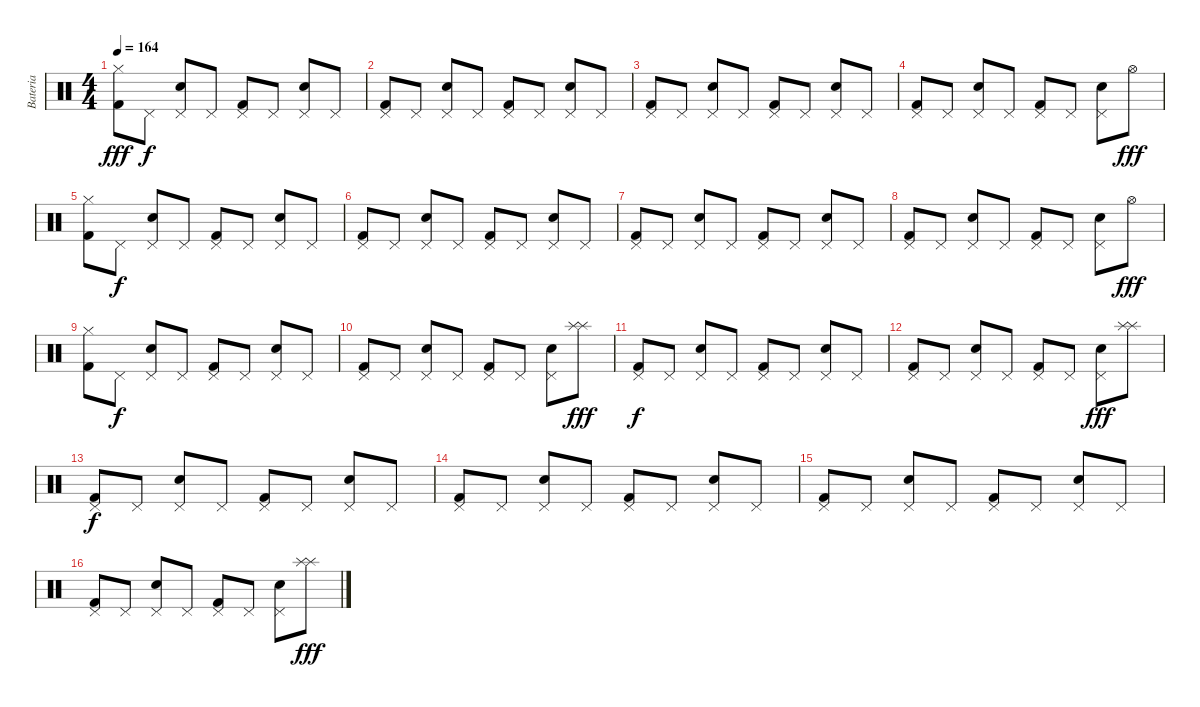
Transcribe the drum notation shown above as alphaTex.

\track ("Bateria" "Bateria") {instrument percussion}
\staff {score}
\articulation defaults
\ts (4 4)
\tempo 164
\clef neutral
\ks c
("Hi-Hat (closed)" "Kick (hit) 2").8{dy fff} "Pedal Hi-Hat (hit)".8{dy f} ("Pedal Hi-Hat (hit)" "Electric Snare (hit)").8 "Pedal Hi-Hat (hit)".8 ("Pedal Hi-Hat (hit)" "Kick (hit) 2").8 "Pedal Hi-Hat (hit)".8 ("Pedal Hi-Hat (hit)" "Electric Snare (hit)").8 "Pedal Hi-Hat (hit)".8 |
("Pedal Hi-Hat (hit)" "Kick (hit) 2").8 "Pedal Hi-Hat (hit)".8 ("Pedal Hi-Hat (hit)" "Electric Snare (hit)").8 "Pedal Hi-Hat (hit)".8 ("Pedal Hi-Hat (hit)" "Kick (hit) 2").8 "Pedal Hi-Hat (hit)".8 ("Pedal Hi-Hat (hit)" "Electric Snare (hit)").8 "Pedal Hi-Hat (hit)".8 |
("Pedal Hi-Hat (hit)" "Kick (hit) 2").8 "Pedal Hi-Hat (hit)".8 ("Pedal Hi-Hat (hit)" "Electric Snare (hit)").8 "Pedal Hi-Hat (hit)".8 ("Pedal Hi-Hat (hit)" "Kick (hit) 2").8 "Pedal Hi-Hat (hit)".8 ("Pedal Hi-Hat (hit)" "Electric Snare (hit)").8 "Pedal Hi-Hat (hit)".8 |
("Pedal Hi-Hat (hit)" "Kick (hit) 2").8 "Pedal Hi-Hat (hit)".8 ("Pedal Hi-Hat (hit)" "Electric Snare (hit)").8 "Pedal Hi-Hat (hit)".8 ("Pedal Hi-Hat (hit)" "Kick (hit) 2").8 "Pedal Hi-Hat (hit)".8 ("Pedal Hi-Hat (hit)" "Electric Snare (hit)").8 "Hi-Hat (open)".8{dy fff} |
("Hi-Hat (closed)" "Kick (hit) 2").8 "Pedal Hi-Hat (hit)".8{dy f} ("Pedal Hi-Hat (hit)" "Electric Snare (hit)").8 "Pedal Hi-Hat (hit)".8 ("Pedal Hi-Hat (hit)" "Kick (hit) 2").8 "Pedal Hi-Hat (hit)".8 ("Pedal Hi-Hat (hit)" "Electric Snare (hit)").8 "Pedal Hi-Hat (hit)".8 |
("Pedal Hi-Hat (hit)" "Kick (hit) 2").8 "Pedal Hi-Hat (hit)".8 ("Pedal Hi-Hat (hit)" "Electric Snare (hit)").8 "Pedal Hi-Hat (hit)".8 ("Pedal Hi-Hat (hit)" "Kick (hit) 2").8 "Pedal Hi-Hat (hit)".8 ("Pedal Hi-Hat (hit)" "Electric Snare (hit)").8 "Pedal Hi-Hat (hit)".8 |
("Pedal Hi-Hat (hit)" "Kick (hit) 2").8 "Pedal Hi-Hat (hit)".8 ("Pedal Hi-Hat (hit)" "Electric Snare (hit)").8 "Pedal Hi-Hat (hit)".8 ("Pedal Hi-Hat (hit)" "Kick (hit) 2").8 "Pedal Hi-Hat (hit)".8 ("Pedal Hi-Hat (hit)" "Electric Snare (hit)").8 "Pedal Hi-Hat (hit)".8 |
("Pedal Hi-Hat (hit)" "Kick (hit) 2").8 "Pedal Hi-Hat (hit)".8 ("Pedal Hi-Hat (hit)" "Electric Snare (hit)").8 "Pedal Hi-Hat (hit)".8 ("Pedal Hi-Hat (hit)" "Kick (hit) 2").8 "Pedal Hi-Hat (hit)".8 ("Pedal Hi-Hat (hit)" "Electric Snare (hit)").8 "Hi-Hat (open)".8{dy fff} |
("Hi-Hat (closed)" "Kick (hit) 2").8 "Pedal Hi-Hat (hit)".8{dy f} ("Pedal Hi-Hat (hit)" "Electric Snare (hit)").8 "Pedal Hi-Hat (hit)".8 ("Pedal Hi-Hat (hit)" "Kick (hit) 2").8 "Pedal Hi-Hat (hit)".8 ("Pedal Hi-Hat (hit)" "Electric Snare (hit)").8 "Pedal Hi-Hat (hit)".8 |
("Pedal Hi-Hat (hit)" "Kick (hit) 2").8 "Pedal Hi-Hat (hit)".8 ("Pedal Hi-Hat (hit)" "Electric Snare (hit)").8 "Pedal Hi-Hat (hit)".8 ("Pedal Hi-Hat (hit)" "Kick (hit) 2").8 "Pedal Hi-Hat (hit)".8 ("Pedal Hi-Hat (hit)" "Electric Snare (hit)").8 ("Splash (hit)" "Splash (hit)").8{dy fff} |
("Pedal Hi-Hat (hit)" "Kick (hit) 2").8{dy f} "Pedal Hi-Hat (hit)".8 ("Pedal Hi-Hat (hit)" "Electric Snare (hit)").8 "Pedal Hi-Hat (hit)".8 ("Pedal Hi-Hat (hit)" "Kick (hit) 2").8 "Pedal Hi-Hat (hit)".8 ("Pedal Hi-Hat (hit)" "Electric Snare (hit)").8 "Pedal Hi-Hat (hit)".8 |
("Pedal Hi-Hat (hit)" "Kick (hit) 2").8 "Pedal Hi-Hat (hit)".8 ("Pedal Hi-Hat (hit)" "Electric Snare (hit)").8 "Pedal Hi-Hat (hit)".8 ("Pedal Hi-Hat (hit)" "Kick (hit) 2").8 "Pedal Hi-Hat (hit)".8 ("Pedal Hi-Hat (hit)" "Electric Snare (hit)").8{dy fff} ("Splash (hit)" "Splash (hit)").8 |
("Pedal Hi-Hat (hit)" "Kick (hit) 2").8{dy f} "Pedal Hi-Hat (hit)".8 ("Pedal Hi-Hat (hit)" "Electric Snare (hit)").8 "Pedal Hi-Hat (hit)".8 ("Pedal Hi-Hat (hit)" "Kick (hit) 2").8 "Pedal Hi-Hat (hit)".8 ("Pedal Hi-Hat (hit)" "Electric Snare (hit)").8 "Pedal Hi-Hat (hit)".8 |
("Pedal Hi-Hat (hit)" "Kick (hit) 2").8 "Pedal Hi-Hat (hit)".8 ("Pedal Hi-Hat (hit)" "Electric Snare (hit)").8 "Pedal Hi-Hat (hit)".8 ("Pedal Hi-Hat (hit)" "Kick (hit) 2").8 "Pedal Hi-Hat (hit)".8 ("Pedal Hi-Hat (hit)" "Electric Snare (hit)").8 "Pedal Hi-Hat (hit)".8 |
("Pedal Hi-Hat (hit)" "Kick (hit) 2").8 "Pedal Hi-Hat (hit)".8 ("Pedal Hi-Hat (hit)" "Electric Snare (hit)").8 "Pedal Hi-Hat (hit)".8 ("Pedal Hi-Hat (hit)" "Kick (hit) 2").8 "Pedal Hi-Hat (hit)".8 ("Pedal Hi-Hat (hit)" "Electric Snare (hit)").8 "Pedal Hi-Hat (hit)".8 |
("Pedal Hi-Hat (hit)" "Kick (hit) 2").8 "Pedal Hi-Hat (hit)".8 ("Pedal Hi-Hat (hit)" "Electric Snare (hit)").8 "Pedal Hi-Hat (hit)".8 ("Pedal Hi-Hat (hit)" "Kick (hit) 2").8 "Pedal Hi-Hat (hit)".8 ("Pedal Hi-Hat (hit)" "Electric Snare (hit)").8 ("Splash (hit)" "Splash (hit)").8{dy fff}
